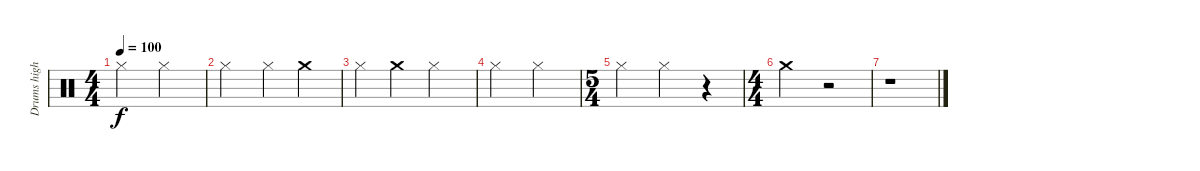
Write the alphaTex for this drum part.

\track ("Drums high" "Drums high") {instrument percussion}
\staff {score}
\articulation defaults
\ts (4 4)
\tempo 100
\clef neutral
\ks c "Hi-Hat (closed)".2{dy f} "Hi-Hat (closed)".2
|
"Hi-Hat (closed)".2 "Hi-Hat (closed)".4 "Crash medium (hit)".4 |
"Hi-Hat (closed)".4 "Crash medium (hit)".4 "Hi-Hat (closed)".2 |
"Hi-Hat (closed)".2 "Hi-Hat (closed)".2 |
\ts (5 4)
"Hi-Hat (closed)".2 "Hi-Hat (closed)".2 r.4 |
\ts (4 4)
"Crash medium (hit)".2 r.2 |
r.1
